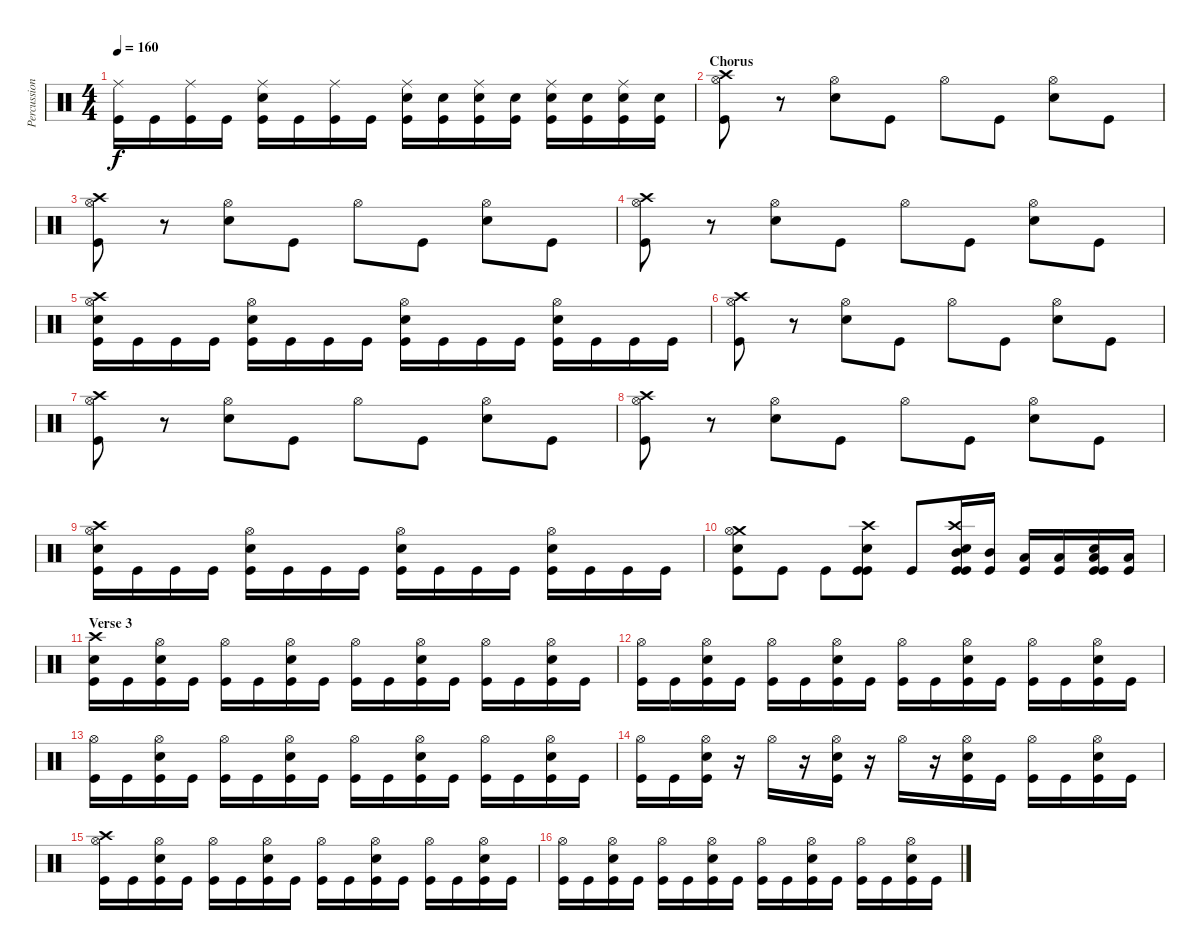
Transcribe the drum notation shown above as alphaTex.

\track ("Percussion" "Percussion") {instrument percussion}
\staff {score}
\articulation defaults
\ts (4 4)
\tempo 160
\clef neutral
\ks c
("Ride (middle)" "Kick (hit)").16{dy f} "Kick (hit)".16 ("Ride (middle)" "Kick (hit)").16 "Kick (hit)".16 ("Electric Snare (hit)" "Ride (middle)" "Kick (hit)").16 "Kick (hit)".16 ("Ride (middle)" "Kick (hit)").16 "Kick (hit)".16 ("Electric Snare (hit)" "Ride (middle)" "Kick (hit)").16 ("Electric Snare (hit)" "Kick (hit)").16 ("Electric Snare (hit)" "Ride (middle)" "Kick (hit)").16 ("Electric Snare (hit)" "Kick (hit)").16 ("Electric Snare (hit)" "Ride (middle)" "Kick (hit)").16 ("Electric Snare (hit)" "Kick (hit)").16 ("Electric Snare (hit)" "Ride (middle)" "Kick (hit)").16 ("Electric Snare (hit)" "Kick (hit)").16 |
\section ("" "Chorus")
("Crash high (hit)" "Hi-Hat (open)" "Kick (hit)").8 r.8 ("Electric Snare (hit)" "Hi-Hat (open)").8 "Kick (hit)".8 "Hi-Hat (open)".8 "Kick (hit)".8 ("Hi-Hat (open)" "Electric Snare (hit)").8 "Kick (hit)".8 |
("Crash high (hit)" "Hi-Hat (open)" "Kick (hit)").8 r.8 ("Electric Snare (hit)" "Hi-Hat (open)").8 "Kick (hit)".8 "Hi-Hat (open)".8 "Kick (hit)".8 ("Hi-Hat (open)" "Electric Snare (hit)").8 "Kick (hit)".8 |
("Crash high (hit)" "Hi-Hat (open)" "Kick (hit)").8 r.8 ("Electric Snare (hit)" "Hi-Hat (open)").8 "Kick (hit)".8 "Hi-Hat (open)".8 "Kick (hit)".8 ("Hi-Hat (open)" "Electric Snare (hit)").8 "Kick (hit)".8 |
("Crash high (hit)" "Hi-Hat (open)" "Electric Snare (hit)" "Kick (hit)").16 "Kick (hit)".16 "Kick (hit)".16 "Kick (hit)".16 ("Hi-Hat (open)" "Electric Snare (hit)" "Kick (hit)").16 "Kick (hit)".16 "Kick (hit)".16 "Kick (hit)".16 ("Hi-Hat (open)" "Electric Snare (hit)" "Kick (hit)").16 "Kick (hit)".16 "Kick (hit)".16 "Kick (hit)".16 ("Hi-Hat (open)" "Electric Snare (hit)" "Kick (hit)").16 "Kick (hit)".16 "Kick (hit)".16 "Kick (hit)".16 |
("Crash high (hit)" "Hi-Hat (open)" "Kick (hit)").8 r.8 ("Electric Snare (hit)" "Hi-Hat (open)").8 "Kick (hit)".8 "Hi-Hat (open)".8 "Kick (hit)".8 ("Hi-Hat (open)" "Electric Snare (hit)").8 "Kick (hit)".8 |
("Crash high (hit)" "Hi-Hat (open)" "Kick (hit)").8 r.8 ("Electric Snare (hit)" "Hi-Hat (open)").8 "Kick (hit)".8 "Hi-Hat (open)".8 "Kick (hit)".8 ("Hi-Hat (open)" "Electric Snare (hit)").8 "Kick (hit)".8 |
("Crash high (hit)" "Hi-Hat (open)" "Kick (hit)").8 r.8 ("Electric Snare (hit)" "Hi-Hat (open)").8 "Kick (hit)".8 "Hi-Hat (open)".8 "Kick (hit)".8 ("Hi-Hat (open)" "Electric Snare (hit)").8 "Kick (hit)".8 |
("Crash high (hit)" "Hi-Hat (open)" "Electric Snare (hit)" "Kick (hit)").16 "Kick (hit)".16 "Kick (hit)".16 "Kick (hit)".16 ("Hi-Hat (open)" "Electric Snare (hit)" "Kick (hit)").16 "Kick (hit)".16 "Kick (hit)".16 "Kick (hit)".16 ("Hi-Hat (open)" "Electric Snare (hit)" "Kick (hit)").16 "Kick (hit)".16 "Kick (hit)".16 "Kick (hit)".16 ("Hi-Hat (open)" "Electric Snare (hit)" "Kick (hit)").16 "Kick (hit)".16 "Kick (hit)".16 "Kick (hit)".16 |
("Crash medium (hit)" "Hi-Hat (open)" "Electric Snare (hit)" "Kick (hit)").8 "Kick (hit)".8 "Kick (hit)".8 ("Crash high (hit)" "Electric Snare (hit)" "Kick (hit)" "Kick (hit)").8 "Kick (hit)".8 ("Crash high (hit)" "Mid Tom (hit)" "Electric Snare (hit)" "Kick (hit)" "Kick (hit)").16 ("Mid Tom (hit)" "Kick (hit)").16 ("Low Tom (hit)" "Kick (hit)").16 ("Low Tom (hit)" "Kick (hit)").16 ("Low Floor Tom (hit)" "Electric Snare (hit)" "Kick (hit)" "Kick (hit)").16 ("Low Floor Tom (hit)" "Kick (hit)").16 |
\section ("" "Verse 3")
("Crash high (hit)" "Electric Snare (hit)" "Kick (hit)").16 "Kick (hit)".16 ("Electric Snare (hit)" "Hi-Hat (open)" "Kick (hit)").16 "Kick (hit)".16 ("Hi-Hat (open)" "Kick (hit)").16 "Kick (hit)".16 ("Electric Snare (hit)" "Hi-Hat (open)" "Kick (hit)").16 "Kick (hit)".16 ("Hi-Hat (open)" "Kick (hit)").16 "Kick (hit)".16 ("Electric Snare (hit)" "Hi-Hat (open)" "Kick (hit)").16 "Kick (hit)".16 ("Hi-Hat (open)" "Kick (hit)").16 "Kick (hit)".16 ("Electric Snare (hit)" "Hi-Hat (open)" "Kick (hit)").16 "Kick (hit)".16 |
("Hi-Hat (open)" "Kick (hit)").16 "Kick (hit)".16 ("Electric Snare (hit)" "Hi-Hat (open)" "Kick (hit)").16 "Kick (hit)".16 ("Hi-Hat (open)" "Kick (hit)").16 "Kick (hit)".16 ("Electric Snare (hit)" "Hi-Hat (open)" "Kick (hit)").16 "Kick (hit)".16 ("Hi-Hat (open)" "Kick (hit)").16 "Kick (hit)".16 ("Electric Snare (hit)" "Hi-Hat (open)" "Kick (hit)").16 "Kick (hit)".16 ("Hi-Hat (open)" "Kick (hit)").16 "Kick (hit)".16 ("Electric Snare (hit)" "Hi-Hat (open)" "Kick (hit)").16 "Kick (hit)".16 |
("Hi-Hat (open)" "Kick (hit)").16 "Kick (hit)".16 ("Electric Snare (hit)" "Hi-Hat (open)" "Kick (hit)").16 "Kick (hit)".16 ("Hi-Hat (open)" "Kick (hit)").16 "Kick (hit)".16 ("Electric Snare (hit)" "Hi-Hat (open)" "Kick (hit)").16 "Kick (hit)".16 ("Hi-Hat (open)" "Kick (hit)").16 "Kick (hit)".16 ("Electric Snare (hit)" "Hi-Hat (open)" "Kick (hit)").16 "Kick (hit)".16 ("Hi-Hat (open)" "Kick (hit)").16 "Kick (hit)".16 ("Electric Snare (hit)" "Hi-Hat (open)" "Kick (hit)").16 "Kick (hit)".16 |
("Hi-Hat (open)" "Kick (hit)").16 "Kick (hit)".16 ("Electric Snare (hit)" "Hi-Hat (open)" "Kick (hit)").16 r.16 "Hi-Hat (open)".16 r.16 ("Electric Snare (hit)" "Hi-Hat (open)" "Kick (hit)").16 r.16 "Hi-Hat (open)".16 r.16 ("Electric Snare (hit)" "Hi-Hat (open)" "Kick (hit)").16 "Kick (hit)".16 ("Hi-Hat (open)" "Kick (hit)").16 "Kick (hit)".16 ("Electric Snare (hit)" "Hi-Hat (open)" "Kick (hit)").16 "Kick (hit)".16 |
("Crash high (hit)" "Hi-Hat (open)" "Kick (hit)").16 "Kick (hit)".16 ("Electric Snare (hit)" "Hi-Hat (open)" "Kick (hit)").16 "Kick (hit)".16 ("Hi-Hat (open)" "Kick (hit)").16 "Kick (hit)".16 ("Electric Snare (hit)" "Hi-Hat (open)" "Kick (hit)").16 "Kick (hit)".16 ("Hi-Hat (open)" "Kick (hit)").16 "Kick (hit)".16 ("Electric Snare (hit)" "Hi-Hat (open)" "Kick (hit)").16 "Kick (hit)".16 ("Hi-Hat (open)" "Kick (hit)").16 "Kick (hit)".16 ("Electric Snare (hit)" "Hi-Hat (open)" "Kick (hit)").16 "Kick (hit)".16 |
("Hi-Hat (open)" "Kick (hit)").16 "Kick (hit)".16 ("Electric Snare (hit)" "Hi-Hat (open)" "Kick (hit)").16 "Kick (hit)".16 ("Hi-Hat (open)" "Kick (hit)").16 "Kick (hit)".16 ("Electric Snare (hit)" "Hi-Hat (open)" "Kick (hit)").16 "Kick (hit)".16 ("Hi-Hat (open)" "Kick (hit)").16 "Kick (hit)".16 ("Electric Snare (hit)" "Hi-Hat (open)" "Kick (hit)").16 "Kick (hit)".16 ("Hi-Hat (open)" "Kick (hit)").16 "Kick (hit)".16 ("Electric Snare (hit)" "Hi-Hat (open)" "Kick (hit)").16 "Kick (hit)".16
